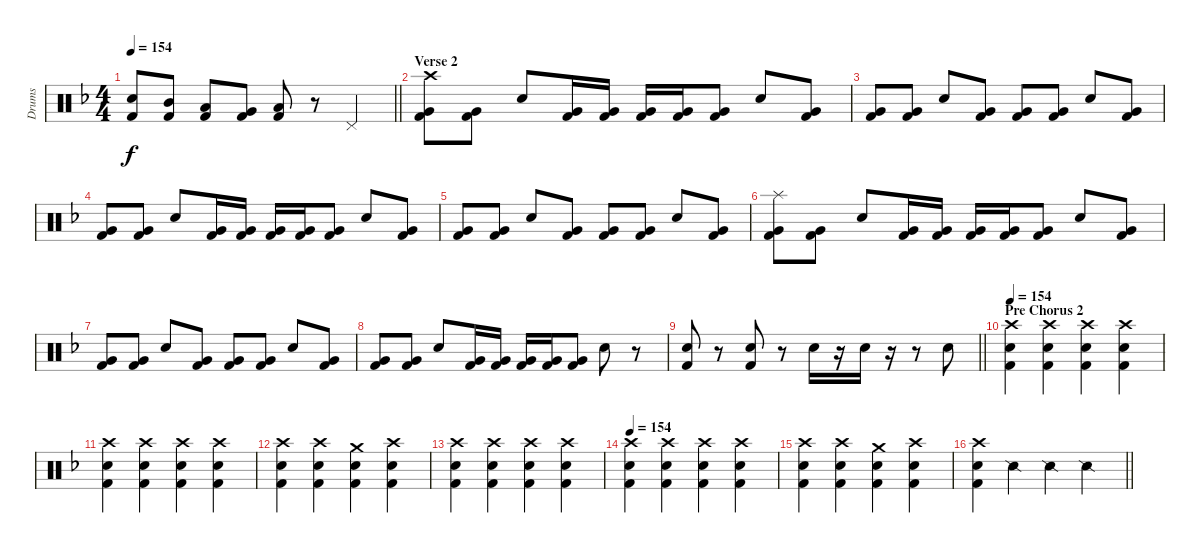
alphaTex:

\track ("Drums" "Drums") {instrument percussion}
\staff {score}
\articulation defaults
\ts (4 4)
\tempo 154
\clef neutral
\barLineRight lightlight
\ks f
("Electric Snare (hit)" "Kick (hit) 2").8{dy f} ("Mid Tom (hit)" "Kick (hit) 2").8 ("Low Tom (hit)" "Kick (hit) 2").8 ("Very Low Tom (hit)" "Kick (hit) 2").8 ("Low Floor Tom (hit)" "Kick (hit) 2").8 r.8 "Pedal Hi-Hat (hit)".4 |
\section ("" "Verse 2")
("Crash high (hit)" "Very Low Tom (hit)" "Kick (hit) 2").8 ("Very Low Tom (hit)" "Kick (hit) 2").8 "Electric Snare (hit)".8 ("Very Low Tom (hit)" "Kick (hit) 2").16 ("Very Low Tom (hit)" "Kick (hit) 2").16 ("Very Low Tom (hit)" "Kick (hit) 2").16 ("Very Low Tom (hit)" "Kick (hit) 2").16 ("Very Low Tom (hit)" "Kick (hit) 2").8 "Electric Snare (hit)".8 ("Very Low Tom (hit)" "Kick (hit) 2").8 |
("Very Low Tom (hit)" "Kick (hit) 2").8 ("Very Low Tom (hit)" "Kick (hit) 2").8 "Electric Snare (hit)".8 ("Very Low Tom (hit)" "Kick (hit) 2").8 ("Very Low Tom (hit)" "Kick (hit) 2").8 ("Very Low Tom (hit)" "Kick (hit) 2").8 "Electric Snare (hit)".8 ("Very Low Tom (hit)" "Kick (hit) 2").8 |
("Very Low Tom (hit)" "Kick (hit) 2").8 ("Very Low Tom (hit)" "Kick (hit) 2").8 "Electric Snare (hit)".8 ("Very Low Tom (hit)" "Kick (hit) 2").16 ("Very Low Tom (hit)" "Kick (hit) 2").16 ("Very Low Tom (hit)" "Kick (hit) 2").16 ("Very Low Tom (hit)" "Kick (hit) 2").16 ("Very Low Tom (hit)" "Kick (hit) 2").8 "Electric Snare (hit)".8 ("Very Low Tom (hit)" "Kick (hit) 2").8 |
("Very Low Tom (hit)" "Kick (hit) 2").8 ("Very Low Tom (hit)" "Kick (hit) 2").8 "Electric Snare (hit)".8 ("Very Low Tom (hit)" "Kick (hit) 2").8 ("Very Low Tom (hit)" "Kick (hit) 2").8 ("Very Low Tom (hit)" "Kick (hit) 2").8 "Electric Snare (hit)".8 ("Very Low Tom (hit)" "Kick (hit) 2").8 |
("Splash (hit)" "Very Low Tom (hit)" "Kick (hit) 2").8 ("Very Low Tom (hit)" "Kick (hit) 2").8 "Electric Snare (hit)".8 ("Very Low Tom (hit)" "Kick (hit) 2").16 ("Very Low Tom (hit)" "Kick (hit) 2").16 ("Very Low Tom (hit)" "Kick (hit) 2").16 ("Very Low Tom (hit)" "Kick (hit) 2").16 ("Very Low Tom (hit)" "Kick (hit) 2").8 "Electric Snare (hit)".8 ("Very Low Tom (hit)" "Kick (hit) 2").8 |
("Very Low Tom (hit)" "Kick (hit) 2").8 ("Very Low Tom (hit)" "Kick (hit) 2").8 "Electric Snare (hit)".8 ("Very Low Tom (hit)" "Kick (hit) 2").8 ("Very Low Tom (hit)" "Kick (hit) 2").8 ("Very Low Tom (hit)" "Kick (hit) 2").8 "Electric Snare (hit)".8 ("Very Low Tom (hit)" "Kick (hit) 2").8 |
("Very Low Tom (hit)" "Kick (hit) 2").8 ("Very Low Tom (hit)" "Kick (hit) 2").8 "Electric Snare (hit)".8 ("Very Low Tom (hit)" "Kick (hit) 2").16 ("Very Low Tom (hit)" "Kick (hit) 2").16 ("Very Low Tom (hit)" "Kick (hit) 2").16 ("Very Low Tom (hit)" "Kick (hit) 2").16 ("Very Low Tom (hit)" "Kick (hit) 2").8 "Electric Snare (hit)".8 r.8 |
\barLineRight lightlight
("Electric Snare (hit)" "Kick (hit) 2").8 r.8 ("Electric Snare (hit)" "Kick (hit) 2").8 r.8 "Electric Snare (hit)".16 r.16 "Electric Snare (hit)".16 r.16 r.8 "Electric Snare (hit)".8 |
\section ("" "Pre Chorus 2")
\tempo 154
("Crash high (hit)" "Electric Snare (hit)" "Kick (hit) 2").4 ("Crash high (hit)" "Electric Snare (hit)" "Kick (hit) 2").4 ("Crash high (hit)" "Electric Snare (hit)" "Kick (hit) 2").4 ("Crash high (hit)" "Electric Snare (hit)" "Kick (hit) 2").4 |
("Crash high (hit)" "Electric Snare (hit)" "Kick (hit) 2").4 ("Crash high (hit)" "Electric Snare (hit)" "Kick (hit) 2").4 ("Crash high (hit)" "Electric Snare (hit)" "Kick (hit) 2").4 ("Crash high (hit)" "Electric Snare (hit)" "Kick (hit) 2").4 |
("Crash high (hit)" "Electric Snare (hit)" "Kick (hit) 2").4 ("Crash high (hit)" "Electric Snare (hit)" "Kick (hit) 2").4 ("Crash medium (hit)" "Electric Snare (hit)" "Kick (hit) 2").4 ("Crash high (hit)" "Electric Snare (hit)" "Kick (hit) 2").4 |
("Crash high (hit)" "Electric Snare (hit)" "Kick (hit) 2").4 ("Crash high (hit)" "Electric Snare (hit)" "Kick (hit) 2").4 ("Crash high (hit)" "Electric Snare (hit)" "Kick (hit) 2").4 ("Crash high (hit)" "Electric Snare (hit)" "Kick (hit) 2").4 |
\tempo 154
("Crash high (hit)" "Electric Snare (hit)" "Kick (hit) 2").4 ("Crash high (hit)" "Electric Snare (hit)" "Kick (hit) 2").4 ("Crash high (hit)" "Electric Snare (hit)" "Kick (hit) 2").4 ("Crash high (hit)" "Electric Snare (hit)" "Kick (hit) 2").4 |
("Crash high (hit)" "Electric Snare (hit)" "Kick (hit) 2").4 ("Crash high (hit)" "Electric Snare (hit)" "Kick (hit) 2").4 ("Crash medium (hit)" "Electric Snare (hit)" "Kick (hit) 2").4 ("Crash high (hit)" "Electric Snare (hit)" "Kick (hit) 2").4 |
\barLineRight lightlight
("Crash high (hit)" "Electric Snare (hit)" "Kick (hit) 2").4 "Snare (side stick) 2".4 "Snare (side stick) 2".4 "Snare (side stick) 2".4
